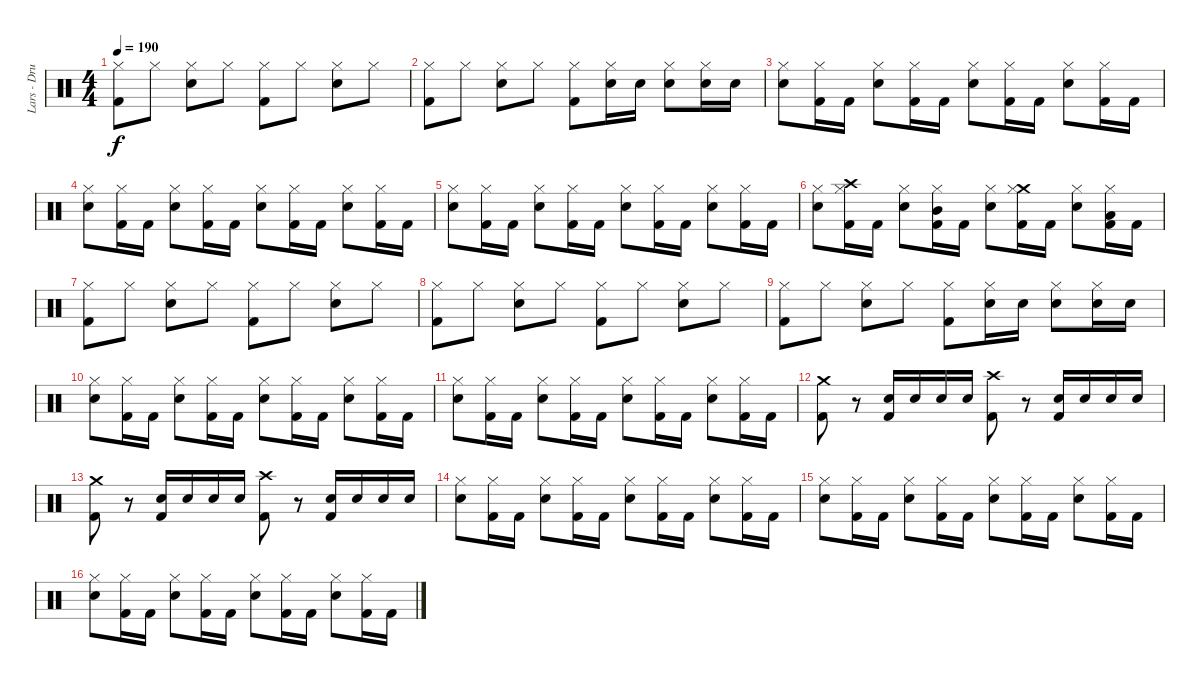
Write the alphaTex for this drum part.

\track ("Lars - Drums" "Lars - Dru") {instrument percussion}
\staff {score}
\articulation defaults
\ts (4 4)
\tempo 190
\clef neutral
\ks c
("Kick (hit) 2" "Hi-Hat (closed)").8{dy f} "Hi-Hat (closed)".8 ("Snare (hit) 2" "Hi-Hat (closed)").8 "Hi-Hat (closed)".8 ("Kick (hit) 2" "Hi-Hat (closed)").8 "Hi-Hat (closed)".8 ("Snare (hit) 2" "Hi-Hat (closed)").8 "Hi-Hat (closed)".8 |
("Kick (hit) 2" "Hi-Hat (closed)").8 "Hi-Hat (closed)".8 ("Snare (hit) 2" "Hi-Hat (closed)").8 "Hi-Hat (closed)".8 ("Kick (hit) 2" "Hi-Hat (closed)").8 ("Snare (hit) 2" "Hi-Hat (closed)").16 "Snare (hit) 2".16 ("Snare (hit) 2" "Hi-Hat (closed)").8 ("Snare (hit) 2" "Hi-Hat (closed)").16 "Snare (hit) 2".16 |
("Snare (hit) 2" "Hi-Hat (closed)").8 ("Kick (hit) 2" "Hi-Hat (closed)").16 "Kick (hit) 2".16 ("Snare (hit) 2" "Hi-Hat (closed)").8 ("Kick (hit) 2" "Hi-Hat (closed)").16 "Kick (hit) 2".16 ("Snare (hit) 2" "Hi-Hat (closed)").8 ("Kick (hit) 2" "Hi-Hat (closed)").16 "Kick (hit) 2".16 ("Snare (hit) 2" "Hi-Hat (closed)").8 ("Kick (hit) 2" "Hi-Hat (closed)").16 "Kick (hit) 2".16 |
("Snare (hit) 2" "Hi-Hat (closed)").8 ("Kick (hit) 2" "Hi-Hat (closed)").16 "Kick (hit) 2".16 ("Snare (hit) 2" "Hi-Hat (closed)").8 ("Kick (hit) 2" "Hi-Hat (closed)").16 "Kick (hit) 2".16 ("Snare (hit) 2" "Hi-Hat (closed)").8 ("Kick (hit) 2" "Hi-Hat (closed)").16 "Kick (hit) 2".16 ("Snare (hit) 2" "Hi-Hat (closed)").8 ("Kick (hit) 2" "Hi-Hat (closed)").16 "Kick (hit) 2".16 |
("Snare (hit) 2" "Hi-Hat (closed)").8 ("Kick (hit) 2" "Hi-Hat (closed)").16 "Kick (hit) 2".16 ("Snare (hit) 2" "Hi-Hat (closed)").8 ("Kick (hit) 2" "Hi-Hat (closed)").16 "Kick (hit) 2".16 ("Snare (hit) 2" "Hi-Hat (closed)").8 ("Kick (hit) 2" "Hi-Hat (closed)").16 "Kick (hit) 2".16 ("Snare (hit) 2" "Hi-Hat (closed)").8 ("Kick (hit) 2" "Hi-Hat (closed)").16 "Kick (hit) 2".16 |
("Snare (hit) 2" "Hi-Hat (closed)").8 ("Kick (hit) 2" "Crash high (hit)" "Hi-Hat (closed)").16 "Kick (hit) 2".16 ("Snare (hit) 2" "Hi-Hat (closed)").8 ("Kick (hit) 2" "Mid Tom (hit)" "Hi-Hat (closed)").16 "Kick (hit) 2".16 ("Snare (hit) 2" "Hi-Hat (closed)").8 ("Kick (hit) 2" "Crash medium (hit)" "Hi-Hat (closed)").16 "Kick (hit) 2".16 ("Snare (hit) 2" "Hi-Hat (closed)").8 ("Kick (hit) 2" "Low Tom (hit)" "Hi-Hat (closed)").16 "Kick (hit) 2".16 |
("Kick (hit) 2" "Hi-Hat (closed)").8 "Hi-Hat (closed)".8 ("Snare (hit) 2" "Hi-Hat (closed)").8 "Hi-Hat (closed)".8 ("Kick (hit) 2" "Hi-Hat (closed)").8 "Hi-Hat (closed)".8 ("Snare (hit) 2" "Hi-Hat (closed)").8 "Hi-Hat (closed)".8 |
("Kick (hit) 2" "Hi-Hat (closed)").8 "Hi-Hat (closed)".8 ("Snare (hit) 2" "Hi-Hat (closed)").8 "Hi-Hat (closed)".8 ("Kick (hit) 2" "Hi-Hat (closed)").8 "Hi-Hat (closed)".8 ("Snare (hit) 2" "Hi-Hat (closed)").8 "Hi-Hat (closed)".8 |
("Kick (hit) 2" "Hi-Hat (closed)").8 "Hi-Hat (closed)".8 ("Snare (hit) 2" "Hi-Hat (closed)").8 "Hi-Hat (closed)".8 ("Kick (hit) 2" "Hi-Hat (closed)").8 ("Snare (hit) 2" "Hi-Hat (closed)").16 "Snare (hit) 2".16 ("Snare (hit) 2" "Hi-Hat (closed)").8 ("Snare (hit) 2" "Hi-Hat (closed)").16 "Snare (hit) 2".16 |
("Snare (hit) 2" "Hi-Hat (closed)").8 ("Kick (hit) 2" "Hi-Hat (closed)").16 "Kick (hit) 2".16 ("Snare (hit) 2" "Hi-Hat (closed)").8 ("Kick (hit) 2" "Hi-Hat (closed)").16 "Kick (hit) 2".16 ("Snare (hit) 2" "Hi-Hat (closed)").8 ("Kick (hit) 2" "Hi-Hat (closed)").16 "Kick (hit) 2".16 ("Snare (hit) 2" "Hi-Hat (closed)").8 ("Kick (hit) 2" "Hi-Hat (closed)").16 "Kick (hit) 2".16 |
("Snare (hit) 2" "Hi-Hat (closed)").8 ("Kick (hit) 2" "Hi-Hat (closed)").16 "Kick (hit) 2".16 ("Snare (hit) 2" "Hi-Hat (closed)").8 ("Kick (hit) 2" "Hi-Hat (closed)").16 "Kick (hit) 2".16 ("Snare (hit) 2" "Hi-Hat (closed)").8 ("Kick (hit) 2" "Hi-Hat (closed)").16 "Kick (hit) 2".16 ("Snare (hit) 2" "Hi-Hat (closed)").8 ("Kick (hit) 2" "Hi-Hat (closed)").16 "Kick (hit) 2".16 |
("Crash medium (hit)" "Kick (hit) 2").8 r.8 ("Snare (hit) 2" "Kick (hit) 2").16 "Snare (hit) 2".16 "Snare (hit) 2".16 "Snare (hit) 2".16 ("Crash high (hit)" "Kick (hit) 2").8 r.8 ("Snare (hit) 2" "Kick (hit) 2").16 "Snare (hit) 2".16 "Snare (hit) 2".16 "Snare (hit) 2".16 |
("Crash medium (hit)" "Kick (hit) 2").8 r.8 ("Snare (hit) 2" "Kick (hit) 2").16 "Snare (hit) 2".16 "Snare (hit) 2".16 "Snare (hit) 2".16 ("Crash high (hit)" "Kick (hit) 2").8 r.8 ("Snare (hit) 2" "Kick (hit) 2").16 "Snare (hit) 2".16 "Snare (hit) 2".16 "Snare (hit) 2".16 |
("Snare (hit) 2" "Hi-Hat (closed)").8 ("Kick (hit) 2" "Hi-Hat (closed)").16 "Kick (hit) 2".16 ("Snare (hit) 2" "Hi-Hat (closed)").8 ("Kick (hit) 2" "Hi-Hat (closed)").16 "Kick (hit) 2".16 ("Snare (hit) 2" "Hi-Hat (closed)").8 ("Kick (hit) 2" "Hi-Hat (closed)").16 "Kick (hit) 2".16 ("Snare (hit) 2" "Hi-Hat (closed)").8 ("Kick (hit) 2" "Hi-Hat (closed)").16 "Kick (hit) 2".16 |
("Snare (hit) 2" "Hi-Hat (closed)").8 ("Kick (hit) 2" "Hi-Hat (closed)").16 "Kick (hit) 2".16 ("Snare (hit) 2" "Hi-Hat (closed)").8 ("Kick (hit) 2" "Hi-Hat (closed)").16 "Kick (hit) 2".16 ("Snare (hit) 2" "Hi-Hat (closed)").8 ("Kick (hit) 2" "Hi-Hat (closed)").16 "Kick (hit) 2".16 ("Snare (hit) 2" "Hi-Hat (closed)").8 ("Kick (hit) 2" "Hi-Hat (closed)").16 "Kick (hit) 2".16 |
("Snare (hit) 2" "Hi-Hat (closed)").8 ("Kick (hit) 2" "Hi-Hat (closed)").16 "Kick (hit) 2".16 ("Snare (hit) 2" "Hi-Hat (closed)").8 ("Kick (hit) 2" "Hi-Hat (closed)").16 "Kick (hit) 2".16 ("Snare (hit) 2" "Hi-Hat (closed)").8 ("Kick (hit) 2" "Hi-Hat (closed)").16 "Kick (hit) 2".16 ("Snare (hit) 2" "Hi-Hat (closed)").8 ("Kick (hit) 2" "Hi-Hat (closed)").16 "Kick (hit) 2".16
